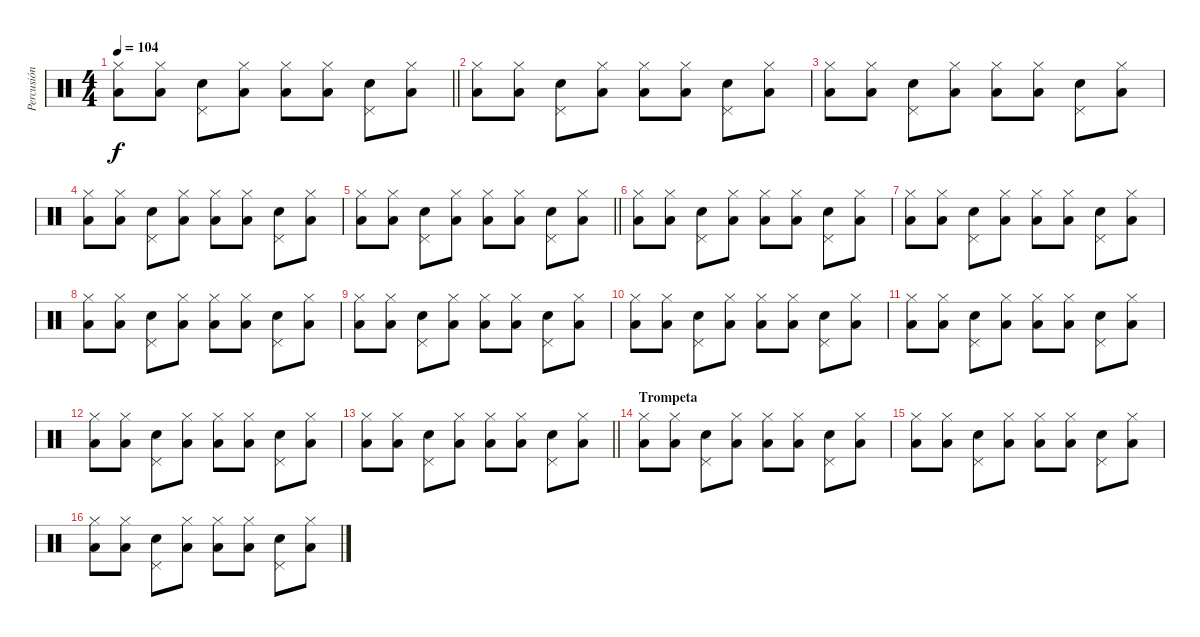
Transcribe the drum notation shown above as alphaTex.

\track ("Percusión" "Percusión") {instrument percussion}
\staff {score}
\articulation defaults
\ts (4 4)
\tempo 104
\clef neutral
\barLineRight lightlight
\ks c
("Low Floor Tom (hit)" "Hi-Hat (closed)").8{dy f} ("Low Floor Tom (hit)" "Hi-Hat (closed)").8 ("Pedal Hi-Hat (hit)" "Snare (hit) 2").8 ("Low Floor Tom (hit)" "Hi-Hat (closed)").8 ("Low Floor Tom (hit)" "Hi-Hat (closed)").8 ("Low Floor Tom (hit)" "Hi-Hat (closed)").8 ("Pedal Hi-Hat (hit)" "Snare (hit) 2").8 ("Low Floor Tom (hit)" "Hi-Hat (closed)").8 |
("Low Floor Tom (hit)" "Hi-Hat (closed)").8 ("Low Floor Tom (hit)" "Hi-Hat (closed)").8 ("Pedal Hi-Hat (hit)" "Snare (hit) 2").8 ("Low Floor Tom (hit)" "Hi-Hat (closed)").8 ("Low Floor Tom (hit)" "Hi-Hat (closed)").8 ("Low Floor Tom (hit)" "Hi-Hat (closed)").8 ("Pedal Hi-Hat (hit)" "Snare (hit) 2").8 ("Low Floor Tom (hit)" "Hi-Hat (closed)").8 |
("Low Floor Tom (hit)" "Hi-Hat (closed)").8 ("Low Floor Tom (hit)" "Hi-Hat (closed)").8 ("Pedal Hi-Hat (hit)" "Snare (hit) 2").8 ("Low Floor Tom (hit)" "Hi-Hat (closed)").8 ("Low Floor Tom (hit)" "Hi-Hat (closed)").8 ("Low Floor Tom (hit)" "Hi-Hat (closed)").8 ("Pedal Hi-Hat (hit)" "Snare (hit) 2").8 ("Low Floor Tom (hit)" "Hi-Hat (closed)").8 |
("Low Floor Tom (hit)" "Hi-Hat (closed)").8 ("Low Floor Tom (hit)" "Hi-Hat (closed)").8 ("Pedal Hi-Hat (hit)" "Snare (hit) 2").8 ("Low Floor Tom (hit)" "Hi-Hat (closed)").8 ("Low Floor Tom (hit)" "Hi-Hat (closed)").8 ("Low Floor Tom (hit)" "Hi-Hat (closed)").8 ("Pedal Hi-Hat (hit)" "Snare (hit) 2").8 ("Low Floor Tom (hit)" "Hi-Hat (closed)").8 |
\barLineRight lightlight
("Low Floor Tom (hit)" "Hi-Hat (closed)").8 ("Low Floor Tom (hit)" "Hi-Hat (closed)").8 ("Pedal Hi-Hat (hit)" "Snare (hit) 2").8 ("Low Floor Tom (hit)" "Hi-Hat (closed)").8 ("Low Floor Tom (hit)" "Hi-Hat (closed)").8 ("Low Floor Tom (hit)" "Hi-Hat (closed)").8 ("Pedal Hi-Hat (hit)" "Snare (hit) 2").8 ("Low Floor Tom (hit)" "Hi-Hat (closed)").8 |
("Low Floor Tom (hit)" "Hi-Hat (closed)").8 ("Low Floor Tom (hit)" "Hi-Hat (closed)").8 ("Pedal Hi-Hat (hit)" "Snare (hit) 2").8 ("Low Floor Tom (hit)" "Hi-Hat (closed)").8 ("Low Floor Tom (hit)" "Hi-Hat (closed)").8 ("Low Floor Tom (hit)" "Hi-Hat (closed)").8 ("Pedal Hi-Hat (hit)" "Snare (hit) 2").8 ("Low Floor Tom (hit)" "Hi-Hat (closed)").8 |
("Low Floor Tom (hit)" "Hi-Hat (closed)").8 ("Low Floor Tom (hit)" "Hi-Hat (closed)").8 ("Pedal Hi-Hat (hit)" "Snare (hit) 2").8 ("Low Floor Tom (hit)" "Hi-Hat (closed)").8 ("Low Floor Tom (hit)" "Hi-Hat (closed)").8 ("Low Floor Tom (hit)" "Hi-Hat (closed)").8 ("Pedal Hi-Hat (hit)" "Snare (hit) 2").8 ("Low Floor Tom (hit)" "Hi-Hat (closed)").8 |
("Low Floor Tom (hit)" "Hi-Hat (closed)").8 ("Low Floor Tom (hit)" "Hi-Hat (closed)").8 ("Pedal Hi-Hat (hit)" "Snare (hit) 2").8 ("Low Floor Tom (hit)" "Hi-Hat (closed)").8 ("Low Floor Tom (hit)" "Hi-Hat (closed)").8 ("Low Floor Tom (hit)" "Hi-Hat (closed)").8 ("Pedal Hi-Hat (hit)" "Snare (hit) 2").8 ("Low Floor Tom (hit)" "Hi-Hat (closed)").8 |
("Low Floor Tom (hit)" "Hi-Hat (closed)").8 ("Low Floor Tom (hit)" "Hi-Hat (closed)").8 ("Pedal Hi-Hat (hit)" "Snare (hit) 2").8 ("Low Floor Tom (hit)" "Hi-Hat (closed)").8 ("Low Floor Tom (hit)" "Hi-Hat (closed)").8 ("Low Floor Tom (hit)" "Hi-Hat (closed)").8 ("Pedal Hi-Hat (hit)" "Snare (hit) 2").8 ("Low Floor Tom (hit)" "Hi-Hat (closed)").8 |
("Low Floor Tom (hit)" "Hi-Hat (closed)").8 ("Low Floor Tom (hit)" "Hi-Hat (closed)").8 ("Pedal Hi-Hat (hit)" "Snare (hit) 2").8 ("Low Floor Tom (hit)" "Hi-Hat (closed)").8 ("Low Floor Tom (hit)" "Hi-Hat (closed)").8 ("Low Floor Tom (hit)" "Hi-Hat (closed)").8 ("Pedal Hi-Hat (hit)" "Snare (hit) 2").8 ("Low Floor Tom (hit)" "Hi-Hat (closed)").8 |
("Low Floor Tom (hit)" "Hi-Hat (closed)").8 ("Low Floor Tom (hit)" "Hi-Hat (closed)").8 ("Pedal Hi-Hat (hit)" "Snare (hit) 2").8 ("Low Floor Tom (hit)" "Hi-Hat (closed)").8 ("Low Floor Tom (hit)" "Hi-Hat (closed)").8 ("Low Floor Tom (hit)" "Hi-Hat (closed)").8 ("Pedal Hi-Hat (hit)" "Snare (hit) 2").8 ("Low Floor Tom (hit)" "Hi-Hat (closed)").8 |
("Low Floor Tom (hit)" "Hi-Hat (closed)").8 ("Low Floor Tom (hit)" "Hi-Hat (closed)").8 ("Pedal Hi-Hat (hit)" "Snare (hit) 2").8 ("Low Floor Tom (hit)" "Hi-Hat (closed)").8 ("Low Floor Tom (hit)" "Hi-Hat (closed)").8 ("Low Floor Tom (hit)" "Hi-Hat (closed)").8 ("Pedal Hi-Hat (hit)" "Snare (hit) 2").8 ("Low Floor Tom (hit)" "Hi-Hat (closed)").8 |
\barLineRight lightlight
("Low Floor Tom (hit)" "Hi-Hat (closed)").8 ("Low Floor Tom (hit)" "Hi-Hat (closed)").8 ("Pedal Hi-Hat (hit)" "Snare (hit) 2").8 ("Low Floor Tom (hit)" "Hi-Hat (closed)").8 ("Low Floor Tom (hit)" "Hi-Hat (closed)").8 ("Low Floor Tom (hit)" "Hi-Hat (closed)").8 ("Pedal Hi-Hat (hit)" "Snare (hit) 2").8 ("Low Floor Tom (hit)" "Hi-Hat (closed)").8 |
\section ("" "Trompeta")
("Low Floor Tom (hit)" "Hi-Hat (closed)").8 ("Low Floor Tom (hit)" "Hi-Hat (closed)").8 ("Pedal Hi-Hat (hit)" "Snare (hit) 2").8 ("Low Floor Tom (hit)" "Hi-Hat (closed)").8 ("Low Floor Tom (hit)" "Hi-Hat (closed)").8 ("Low Floor Tom (hit)" "Hi-Hat (closed)").8 ("Pedal Hi-Hat (hit)" "Snare (hit) 2").8 ("Low Floor Tom (hit)" "Hi-Hat (closed)").8 |
("Low Floor Tom (hit)" "Hi-Hat (closed)").8 ("Low Floor Tom (hit)" "Hi-Hat (closed)").8 ("Pedal Hi-Hat (hit)" "Snare (hit) 2").8 ("Low Floor Tom (hit)" "Hi-Hat (closed)").8 ("Low Floor Tom (hit)" "Hi-Hat (closed)").8 ("Low Floor Tom (hit)" "Hi-Hat (closed)").8 ("Pedal Hi-Hat (hit)" "Snare (hit) 2").8 ("Low Floor Tom (hit)" "Hi-Hat (closed)").8 |
("Low Floor Tom (hit)" "Hi-Hat (closed)").8 ("Low Floor Tom (hit)" "Hi-Hat (closed)").8 ("Pedal Hi-Hat (hit)" "Snare (hit) 2").8 ("Low Floor Tom (hit)" "Hi-Hat (closed)").8 ("Low Floor Tom (hit)" "Hi-Hat (closed)").8 ("Low Floor Tom (hit)" "Hi-Hat (closed)").8 ("Pedal Hi-Hat (hit)" "Snare (hit) 2").8 ("Low Floor Tom (hit)" "Hi-Hat (closed)").8
